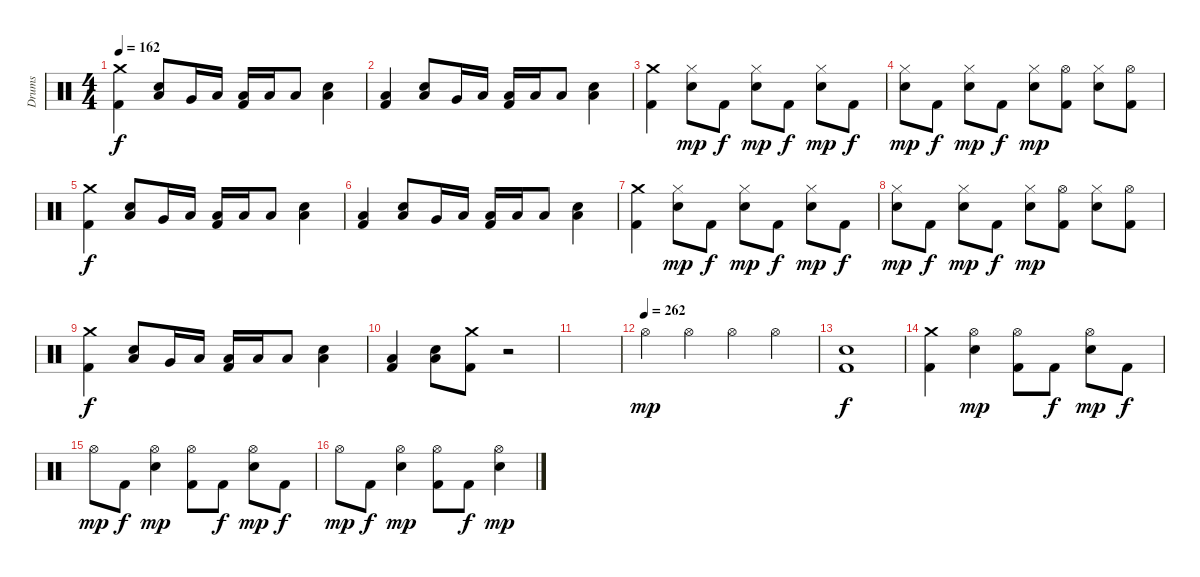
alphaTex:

\track ("Drums" "Drums") {instrument percussion}
\staff {score}
\articulation defaults
\ts (4 4)
\tempo 162
\clef neutral
\ks c
("Crash medium (hit)" "Kick (hit) 2").4{dy f} ("Low Floor Tom (hit)" "Snare (hit) 2").8 "Very Low Tom (hit)".16 "Low Floor Tom (hit)".16 ("Low Floor Tom (hit)" "Kick (hit) 2").16 "Low Floor Tom (hit)".16 "Low Floor Tom (hit)".8 ("Low Floor Tom (hit)" "Snare (hit) 2").4 |
("Low Floor Tom (hit)" "Kick (hit) 2").4 ("Low Floor Tom (hit)" "Snare (hit) 2").8 "Very Low Tom (hit)".16 "Low Floor Tom (hit)".16 ("Low Floor Tom (hit)" "Kick (hit) 2").16 "Low Floor Tom (hit)".16 "Low Floor Tom (hit)".8 ("Low Floor Tom (hit)" "Snare (hit) 2").4 |
("Crash medium (hit)" "Kick (hit) 2").4 ("Hi-Hat (closed)" "Snare (hit) 2").8{dy mp} "Kick (hit) 2".8{dy f} ("Hi-Hat (closed)" "Snare (hit) 2").8{dy mp} "Kick (hit) 2".8{dy f} ("Hi-Hat (closed)" "Snare (hit) 2").8{dy mp} "Kick (hit) 2".8{dy f} |
("Hi-Hat (closed)" "Snare (hit) 2").8{dy mp} "Kick (hit) 2".8{dy f} ("Hi-Hat (closed)" "Snare (hit) 2").8{dy mp} "Kick (hit) 2".8{dy f} ("Hi-Hat (closed)" "Snare (hit) 2").8{dy mp} ("Hi-Hat (open)" "Kick (hit) 2").8 ("Hi-Hat (closed)" "Snare (hit) 2").8 ("Hi-Hat (open)" "Kick (hit) 2").8 |
("Crash medium (hit)" "Kick (hit) 2").4{dy f} ("Low Floor Tom (hit)" "Snare (hit) 2").8 "Very Low Tom (hit)".16 "Low Floor Tom (hit)".16 ("Low Floor Tom (hit)" "Kick (hit) 2").16 "Low Floor Tom (hit)".16 "Low Floor Tom (hit)".8 ("Low Floor Tom (hit)" "Snare (hit) 2").4 |
("Low Floor Tom (hit)" "Kick (hit) 2").4 ("Low Floor Tom (hit)" "Snare (hit) 2").8 "Very Low Tom (hit)".16 "Low Floor Tom (hit)".16 ("Low Floor Tom (hit)" "Kick (hit) 2").16 "Low Floor Tom (hit)".16 "Low Floor Tom (hit)".8 ("Low Floor Tom (hit)" "Snare (hit) 2").4 |
("Crash medium (hit)" "Kick (hit) 2").4 ("Hi-Hat (closed)" "Snare (hit) 2").8{dy mp} "Kick (hit) 2".8{dy f} ("Hi-Hat (closed)" "Snare (hit) 2").8{dy mp} "Kick (hit) 2".8{dy f} ("Hi-Hat (closed)" "Snare (hit) 2").8{dy mp} "Kick (hit) 2".8{dy f} |
("Hi-Hat (closed)" "Snare (hit) 2").8{dy mp} "Kick (hit) 2".8{dy f} ("Hi-Hat (closed)" "Snare (hit) 2").8{dy mp} "Kick (hit) 2".8{dy f} ("Hi-Hat (closed)" "Snare (hit) 2").8{dy mp} ("Hi-Hat (open)" "Kick (hit) 2").8 ("Hi-Hat (closed)" "Snare (hit) 2").8 ("Hi-Hat (open)" "Kick (hit) 2").8 |
("Crash medium (hit)" "Kick (hit) 2").4{dy f} ("Low Floor Tom (hit)" "Snare (hit) 2").8 "Very Low Tom (hit)".16 "Low Floor Tom (hit)".16 ("Low Floor Tom (hit)" "Kick (hit) 2").16 "Low Floor Tom (hit)".16 "Low Floor Tom (hit)".8 ("Low Floor Tom (hit)" "Snare (hit) 2").4 |
("Low Floor Tom (hit)" "Kick (hit) 2").4 ("Low Floor Tom (hit)" "Snare (hit) 2").8 ("Crash medium (hit)" "Kick (hit) 2").8 r.2 |
|
\tempo (262)
"Hi-Hat (open)".4{dy mp} "Hi-Hat (open)".4 "Hi-Hat (open)".4 "Hi-Hat (open)".4 |
("Snare (hit) 2" "Kick (hit) 2").1{dy f} |
("Crash medium (hit)" "Kick (hit) 2").4 ("Hi-Hat (open)" "Snare (hit) 2").4{dy mp} ("Hi-Hat (open)" "Kick (hit) 2").8 "Kick (hit) 2".8{dy f} ("Hi-Hat (open)" "Snare (hit) 2").8{dy mp} "Kick (hit) 2".8{dy f} |
"Hi-Hat (open)".8{dy mp} "Kick (hit) 2".8{dy f} ("Hi-Hat (open)" "Snare (hit) 2").4{dy mp} ("Hi-Hat (open)" "Kick (hit) 2").8 "Kick (hit) 2".8{dy f} ("Hi-Hat (open)" "Snare (hit) 2").8{dy mp} "Kick (hit) 2".8{dy f} |
"Hi-Hat (open)".8{dy mp} "Kick (hit) 2".8{dy f} ("Hi-Hat (open)" "Snare (hit) 2").4{dy mp} ("Hi-Hat (open)" "Kick (hit) 2").8 "Kick (hit) 2".8{dy f} ("Hi-Hat (open)" "Snare (hit) 2").4{dy mp}
